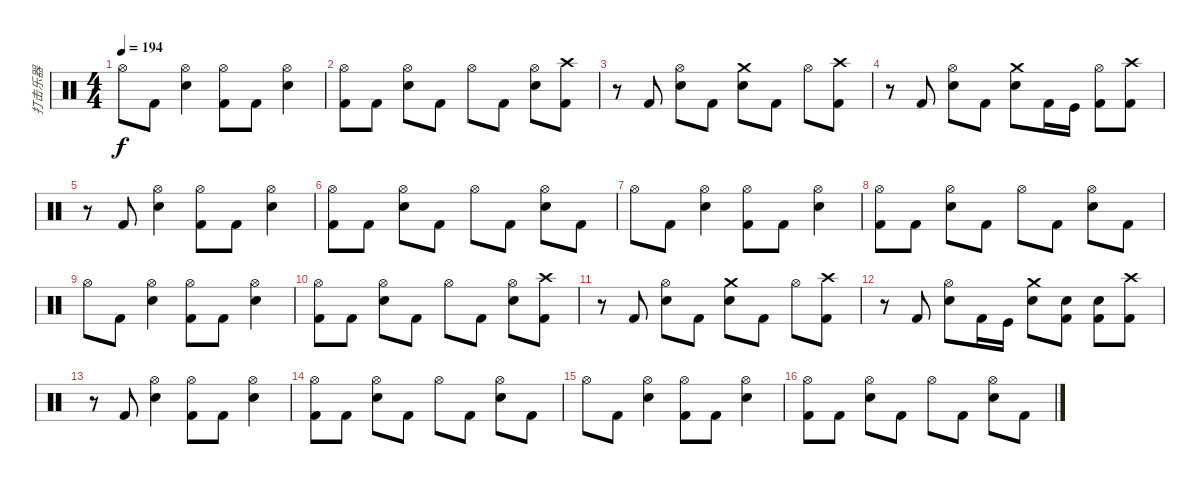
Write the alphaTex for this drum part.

\track ("打击乐器" "打击乐器") {instrument percussion}
\staff {score}
\articulation defaults
\ts (4 4)
\tempo 194
\clef neutral
\ks c "Hi-Hat (open)".8{dy f} "Kick (hit) 2".8
("Hi-Hat (open)" "Electric Snare (hit)").4 ("Hi-Hat (open)" "Kick (hit) 2").8 "Kick (hit) 2".8 ("Hi-Hat (open)" "Electric Snare (hit)").4 |
("Hi-Hat (open)" "Kick (hit) 2").8 "Kick (hit) 2".8 ("Hi-Hat (open)" "Electric Snare (hit)").8 "Kick (hit) 2".8 "Hi-Hat (open)".8 "Kick (hit) 2".8 ("Hi-Hat (open)" "Electric Snare (hit)").8 ("Crash high (hit)" "Kick (hit) 2").8 |
r.8 "Kick (hit) 2".8 ("Hi-Hat (open)" "Electric Snare (hit)").8 "Kick (hit) 2".8 ("Crash medium (hit)" "Electric Snare (hit)").8 "Kick (hit) 2".8 "Hi-Hat (open)".8 ("Crash high (hit)" "Kick (hit) 2").8 |
r.8 "Kick (hit) 2".8 ("Hi-Hat (open)" "Electric Snare (hit)").8 "Kick (hit) 2".8 ("Crash medium (hit)" "Electric Snare (hit)").8 "Kick (hit) 2".16 "Kick (hit)".16 ("Hi-Hat (open)" "Kick (hit) 2").8 ("Crash high (hit)" "Kick (hit) 2").8 |
r.8 "Kick (hit) 2".8 ("Hi-Hat (open)" "Electric Snare (hit)").4 ("Hi-Hat (open)" "Kick (hit) 2").8 "Kick (hit) 2".8 ("Hi-Hat (open)" "Electric Snare (hit)").4 |
("Hi-Hat (open)" "Kick (hit) 2").8 "Kick (hit) 2".8 ("Hi-Hat (open)" "Electric Snare (hit)").8 "Kick (hit) 2".8 "Hi-Hat (open)".8 "Kick (hit) 2".8 ("Hi-Hat (open)" "Electric Snare (hit)").8 "Kick (hit) 2".8 |
"Hi-Hat (open)".8 "Kick (hit) 2".8 ("Hi-Hat (open)" "Electric Snare (hit)").4 ("Hi-Hat (open)" "Kick (hit) 2").8 "Kick (hit) 2".8 ("Hi-Hat (open)" "Electric Snare (hit)").4 |
("Hi-Hat (open)" "Kick (hit) 2").8 "Kick (hit) 2".8 ("Hi-Hat (open)" "Electric Snare (hit)").8 "Kick (hit) 2".8 "Hi-Hat (open)".8 "Kick (hit) 2".8 ("Hi-Hat (open)" "Electric Snare (hit)").8 "Kick (hit) 2".8 |
"Hi-Hat (open)".8 "Kick (hit) 2".8 ("Hi-Hat (open)" "Electric Snare (hit)").4 ("Hi-Hat (open)" "Kick (hit) 2").8 "Kick (hit) 2".8 ("Hi-Hat (open)" "Electric Snare (hit)").4 |
("Hi-Hat (open)" "Kick (hit) 2").8 "Kick (hit) 2".8 ("Hi-Hat (open)" "Electric Snare (hit)").8 "Kick (hit) 2".8 "Hi-Hat (open)".8 "Kick (hit) 2".8 ("Hi-Hat (open)" "Electric Snare (hit)").8 ("Crash high (hit)" "Kick (hit) 2").8 |
r.8 "Kick (hit) 2".8 ("Hi-Hat (open)" "Electric Snare (hit)").8 "Kick (hit) 2".8 ("Crash medium (hit)" "Electric Snare (hit)").8 "Kick (hit) 2".8 "Hi-Hat (open)".8 ("Crash high (hit)" "Kick (hit) 2").8 |
r.8 "Kick (hit) 2".8 ("Hi-Hat (open)" "Electric Snare (hit)").8 "Kick (hit) 2".16 "Kick (hit)".16 ("Crash medium (hit)" "Electric Snare (hit)").8 ("Electric Snare (hit)" "Kick (hit) 2").8 ("Electric Snare (hit)" "Kick (hit) 2").8 ("Crash high (hit)" "Kick (hit) 2").8 |
r.8 "Kick (hit) 2".8 ("Hi-Hat (open)" "Electric Snare (hit)").4 ("Hi-Hat (open)" "Kick (hit) 2").8 "Kick (hit) 2".8 ("Hi-Hat (open)" "Electric Snare (hit)").4 |
("Hi-Hat (open)" "Kick (hit) 2").8 "Kick (hit) 2".8 ("Hi-Hat (open)" "Electric Snare (hit)").8 "Kick (hit) 2".8 "Hi-Hat (open)".8 "Kick (hit) 2".8 ("Hi-Hat (open)" "Electric Snare (hit)").8 "Kick (hit) 2".8 |
"Hi-Hat (open)".8 "Kick (hit) 2".8 ("Hi-Hat (open)" "Electric Snare (hit)").4 ("Hi-Hat (open)" "Kick (hit) 2").8 "Kick (hit) 2".8 ("Hi-Hat (open)" "Electric Snare (hit)").4 |
("Hi-Hat (open)" "Kick (hit) 2").8 "Kick (hit) 2".8 ("Hi-Hat (open)" "Electric Snare (hit)").8 "Kick (hit) 2".8 "Hi-Hat (open)".8 "Kick (hit) 2".8 ("Hi-Hat (open)" "Electric Snare (hit)").8 "Kick (hit) 2".8
